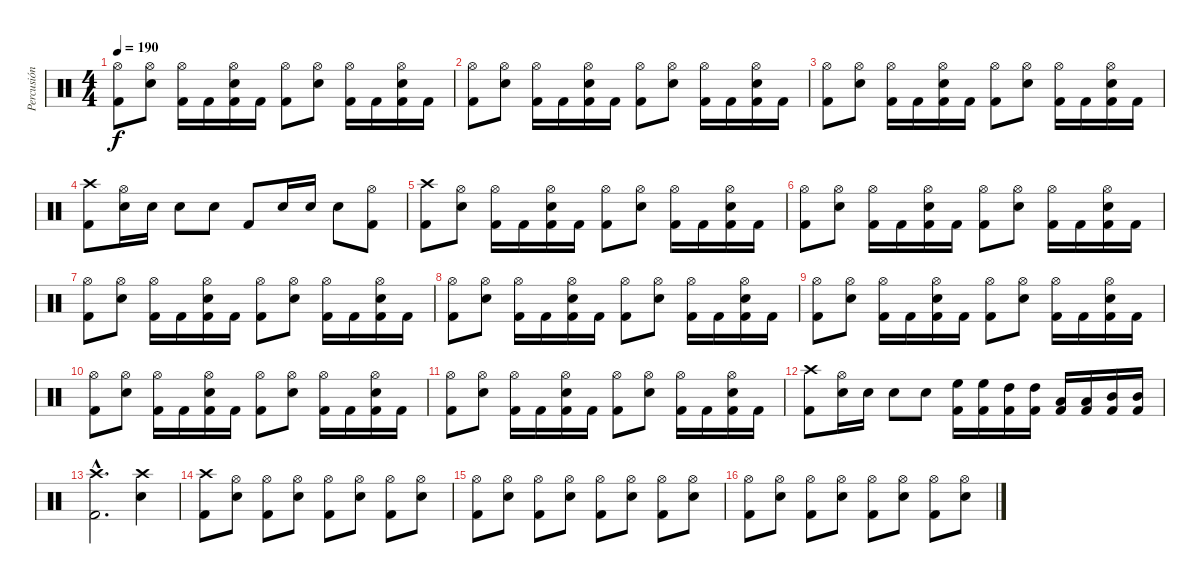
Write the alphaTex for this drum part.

\track ("Percusión" "Percusión") {instrument percussion}
\staff {score}
\articulation defaults
\ts (4 4)
\tempo 190
\clef neutral
\ks c
("Kick (hit) 2" "Hi-Hat (open)").8{dy f} ("Snare (hit) 2" "Hi-Hat (open)").8 ("Kick (hit) 2" "Hi-Hat (open)").16 "Kick (hit) 2".16 ("Kick (hit) 2" "Snare (hit) 2" "Hi-Hat (open)").16 "Kick (hit) 2".16 ("Kick (hit) 2" "Hi-Hat (open)").8 ("Snare (hit) 2" "Hi-Hat (open)").8 ("Kick (hit) 2" "Hi-Hat (open)").16 "Kick (hit) 2".16 ("Kick (hit) 2" "Snare (hit) 2" "Hi-Hat (open)").16 "Kick (hit) 2".16 |
("Kick (hit) 2" "Hi-Hat (open)").8 ("Snare (hit) 2" "Hi-Hat (open)").8 ("Kick (hit) 2" "Hi-Hat (open)").16 "Kick (hit) 2".16 ("Kick (hit) 2" "Snare (hit) 2" "Hi-Hat (open)").16 "Kick (hit) 2".16 ("Kick (hit) 2" "Hi-Hat (open)").8 ("Snare (hit) 2" "Hi-Hat (open)").8 ("Kick (hit) 2" "Hi-Hat (open)").16 "Kick (hit) 2".16 ("Kick (hit) 2" "Snare (hit) 2" "Hi-Hat (open)").16 "Kick (hit) 2".16 |
("Kick (hit) 2" "Hi-Hat (open)").8 ("Snare (hit) 2" "Hi-Hat (open)").8 ("Kick (hit) 2" "Hi-Hat (open)").16 "Kick (hit) 2".16 ("Kick (hit) 2" "Snare (hit) 2" "Hi-Hat (open)").16 "Kick (hit) 2".16 ("Kick (hit) 2" "Hi-Hat (open)").8 ("Snare (hit) 2" "Hi-Hat (open)").8 ("Kick (hit) 2" "Hi-Hat (open)").16 "Kick (hit) 2".16 ("Kick (hit) 2" "Snare (hit) 2" "Hi-Hat (open)").16 "Kick (hit) 2".16 |
("Kick (hit) 2" "Crash high (hit)").8 ("Snare (hit) 2" "Hi-Hat (open)").16 "Snare (hit) 2".16 "Snare (hit) 2".8 "Snare (hit) 2".8 "Kick (hit) 2".8 "Snare (hit) 2".16 "Snare (hit) 2".16 "Snare (hit) 2".8 ("Kick (hit) 2" "Hi-Hat (open)").8 |
("Kick (hit) 2" "Crash high (hit)").8 ("Snare (hit) 2" "Hi-Hat (open)").8 ("Kick (hit) 2" "Hi-Hat (open)").16 "Kick (hit) 2".16 ("Kick (hit) 2" "Snare (hit) 2" "Hi-Hat (open)").16 "Kick (hit) 2".16 ("Kick (hit) 2" "Hi-Hat (open)").8 ("Snare (hit) 2" "Hi-Hat (open)").8 ("Kick (hit) 2" "Hi-Hat (open)").16 "Kick (hit) 2".16 ("Kick (hit) 2" "Snare (hit) 2" "Hi-Hat (open)").16 "Kick (hit) 2".16 |
("Kick (hit) 2" "Hi-Hat (open)").8 ("Snare (hit) 2" "Hi-Hat (open)").8 ("Kick (hit) 2" "Hi-Hat (open)").16 "Kick (hit) 2".16 ("Kick (hit) 2" "Snare (hit) 2" "Hi-Hat (open)").16 "Kick (hit) 2".16 ("Kick (hit) 2" "Hi-Hat (open)").8 ("Snare (hit) 2" "Hi-Hat (open)").8 ("Kick (hit) 2" "Hi-Hat (open)").16 "Kick (hit) 2".16 ("Kick (hit) 2" "Snare (hit) 2" "Hi-Hat (open)").16 "Kick (hit) 2".16 |
("Kick (hit) 2" "Hi-Hat (open)").8 ("Snare (hit) 2" "Hi-Hat (open)").8 ("Kick (hit) 2" "Hi-Hat (open)").16 "Kick (hit) 2".16 ("Kick (hit) 2" "Snare (hit) 2" "Hi-Hat (open)").16 "Kick (hit) 2".16 ("Kick (hit) 2" "Hi-Hat (open)").8 ("Snare (hit) 2" "Hi-Hat (open)").8 ("Kick (hit) 2" "Hi-Hat (open)").16 "Kick (hit) 2".16 ("Kick (hit) 2" "Snare (hit) 2" "Hi-Hat (open)").16 "Kick (hit) 2".16 |
("Kick (hit) 2" "Hi-Hat (open)").8 ("Snare (hit) 2" "Hi-Hat (open)").8 ("Kick (hit) 2" "Hi-Hat (open)").16 "Kick (hit) 2".16 ("Kick (hit) 2" "Snare (hit) 2" "Hi-Hat (open)").16 "Kick (hit) 2".16 ("Kick (hit) 2" "Hi-Hat (open)").8 ("Snare (hit) 2" "Hi-Hat (open)").8 ("Kick (hit) 2" "Hi-Hat (open)").16 "Kick (hit) 2".16 ("Kick (hit) 2" "Snare (hit) 2" "Hi-Hat (open)").16 "Kick (hit) 2".16 |
("Kick (hit) 2" "Hi-Hat (open)").8 ("Snare (hit) 2" "Hi-Hat (open)").8 ("Kick (hit) 2" "Hi-Hat (open)").16 "Kick (hit) 2".16 ("Kick (hit) 2" "Snare (hit) 2" "Hi-Hat (open)").16 "Kick (hit) 2".16 ("Kick (hit) 2" "Hi-Hat (open)").8 ("Snare (hit) 2" "Hi-Hat (open)").8 ("Kick (hit) 2" "Hi-Hat (open)").16 "Kick (hit) 2".16 ("Kick (hit) 2" "Snare (hit) 2" "Hi-Hat (open)").16 "Kick (hit) 2".16 |
("Kick (hit) 2" "Hi-Hat (open)").8 ("Snare (hit) 2" "Hi-Hat (open)").8 ("Kick (hit) 2" "Hi-Hat (open)").16 "Kick (hit) 2".16 ("Kick (hit) 2" "Snare (hit) 2" "Hi-Hat (open)").16 "Kick (hit) 2".16 ("Kick (hit) 2" "Hi-Hat (open)").8 ("Snare (hit) 2" "Hi-Hat (open)").8 ("Kick (hit) 2" "Hi-Hat (open)").16 "Kick (hit) 2".16 ("Kick (hit) 2" "Snare (hit) 2" "Hi-Hat (open)").16 "Kick (hit) 2".16 |
("Kick (hit) 2" "Hi-Hat (open)").8 ("Snare (hit) 2" "Hi-Hat (open)").8 ("Kick (hit) 2" "Hi-Hat (open)").16 "Kick (hit) 2".16 ("Kick (hit) 2" "Snare (hit) 2" "Hi-Hat (open)").16 "Kick (hit) 2".16 ("Kick (hit) 2" "Hi-Hat (open)").8 ("Snare (hit) 2" "Hi-Hat (open)").8 ("Kick (hit) 2" "Hi-Hat (open)").16 "Kick (hit) 2".16 ("Kick (hit) 2" "Snare (hit) 2" "Hi-Hat (open)").16 "Kick (hit) 2".16 |
("Kick (hit) 2" "Crash high (hit)").8 ("Snare (hit) 2" "Hi-Hat (open)").16 "Snare (hit) 2".16 "Snare (hit) 2".8 "Snare (hit) 2".8 ("Kick (hit) 2" "High Floor Tom (hit)").16 ("Kick (hit) 2" "High Floor Tom (hit)").16 ("Kick (hit) 2" "High Tom (hit)").16 ("Kick (hit) 2" "High Tom (hit)").16 ("Kick (hit) 2" "Low Tom (hit)").16 ("Kick (hit) 2" "Low Tom (hit)").16 ("Kick (hit) 2" "Mid Tom (hit)").16 ("Kick (hit) 2" "Mid Tom (hit)").16 |
("Kick (hit) 2"{hac} "Crash high (hit)"{hac}).2{d} ("Snare (hit) 2" "Crash high (hit)").4 |
("Kick (hit) 2" "Crash high (hit)").8 ("Snare (hit) 2" "Hi-Hat (open)").8 ("Kick (hit) 2" "Hi-Hat (open)").8 ("Snare (hit) 2" "Hi-Hat (open)").8 ("Kick (hit) 2" "Hi-Hat (open)").8 ("Snare (hit) 2" "Hi-Hat (open)").8 ("Kick (hit) 2" "Hi-Hat (open)").8 ("Snare (hit) 2" "Hi-Hat (open)").8 |
("Kick (hit) 2" "Hi-Hat (open)").8 ("Snare (hit) 2" "Hi-Hat (open)").8 ("Kick (hit) 2" "Hi-Hat (open)").8 ("Snare (hit) 2" "Hi-Hat (open)").8 ("Kick (hit) 2" "Hi-Hat (open)").8 ("Snare (hit) 2" "Hi-Hat (open)").8 ("Kick (hit) 2" "Hi-Hat (open)").8 ("Snare (hit) 2" "Hi-Hat (open)").8 |
("Kick (hit) 2" "Hi-Hat (open)").8 ("Snare (hit) 2" "Hi-Hat (open)").8 ("Kick (hit) 2" "Hi-Hat (open)").8 ("Snare (hit) 2" "Hi-Hat (open)").8 ("Kick (hit) 2" "Hi-Hat (open)").8 ("Snare (hit) 2" "Hi-Hat (open)").8 ("Kick (hit) 2" "Hi-Hat (open)").8 ("Snare (hit) 2" "Hi-Hat (open)").8
